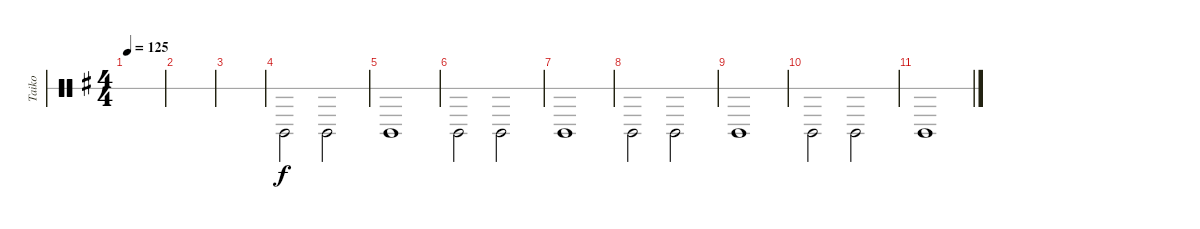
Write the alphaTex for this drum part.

\defaultSystemsLayout 4
\bracketExtendMode groupsimilarinstruments
\otherSystemsTrackNameOrientation horizontal
\track ("Taiko Drum" "Taiko") {instrument percussion}
\staff {score 1}
\articulation defaults
\ts (4 4)
\tempo 125
\clef neutral
\scale
0.333333
\ks g
|
\scale
0.333333 |
\scale
0.333333 |
\scale
0.333333 "Timbale low (hit)"{acc forcenatural}.2{beam Down} "Timbale low (hit)"{acc forcenatural}.2{beam Down} |
\scale
0.333333 "Timbale low (hit)"{acc forcenatural}.1{beam Down} |
\scale
0.333333 "Timbale low (hit)"{acc forcenatural}.2{beam Down} "Timbale low (hit)"{acc forcenatural}.2{beam Down} |
\scale
0.333333 "Timbale low (hit)"{acc forcenatural}.1{beam Down} |
\scale
0.333333 "Timbale low (hit)"{acc forcenatural}.2{beam Down} "Timbale low (hit)"{acc forcenatural}.2{beam Down} |
\scale
0.333333 "Timbale low (hit)"{acc forcenatural}.1{beam Down} |
\scale
0.333333 "Timbale low (hit)"{acc forcenatural}.2{beam Down} "Timbale low (hit)"{acc forcenatural}.2{beam Down} |
\scale
0.333333 "Timbale low (hit)"{acc forcenatural}.1{beam Down} |
\scale
0.333333 |
\scale
0.333333 |
\scale
0.333333 |
\scale
0.333333 |
\scale
0.333333
